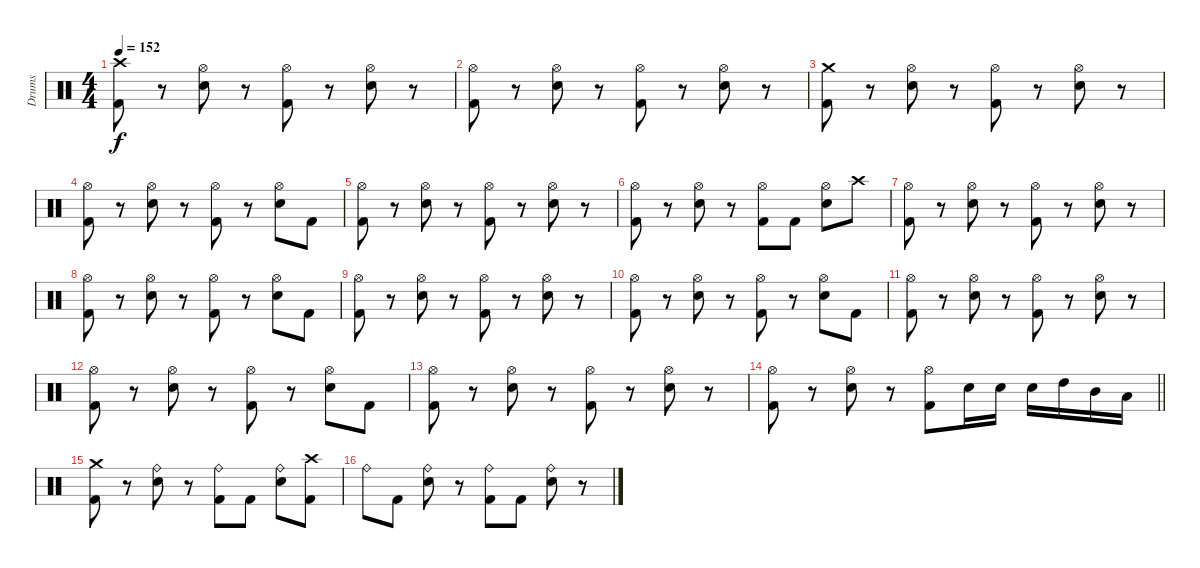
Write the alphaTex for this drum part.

\track ("Drums" "Drums") {instrument percussion}
\staff {score}
\articulation defaults
\ts (4 4)
\tempo 152
\clef neutral
\ks c
("Crash high (hit)" "Kick (hit) 2").8{dy f} r.8 ("Hi-Hat (open)" "Snare (hit) 2").8 r.8 ("Hi-Hat (open)" "Kick (hit) 2").8 r.8 ("Hi-Hat (open)" "Snare (hit) 2").8 r.8 |
("Hi-Hat (open)" "Kick (hit) 2").8 r.8 ("Hi-Hat (open)" "Snare (hit) 2").8 r.8 ("Hi-Hat (open)" "Kick (hit) 2").8 r.8 ("Hi-Hat (open)" "Snare (hit) 2").8 r.8 |
("Crash medium (hit)" "Kick (hit) 2").8 r.8 ("Hi-Hat (open)" "Snare (hit) 2").8 r.8 ("Hi-Hat (open)" "Kick (hit) 2").8 r.8 ("Hi-Hat (open)" "Snare (hit) 2").8 r.8 |
("Hi-Hat (open)" "Kick (hit) 2").8 r.8 ("Hi-Hat (open)" "Snare (hit) 2").8 r.8 ("Hi-Hat (open)" "Kick (hit) 2").8 r.8 ("Hi-Hat (open)" "Snare (hit) 2").8 "Kick (hit) 2".8 |
("Hi-Hat (open)" "Kick (hit) 2").8 r.8 ("Hi-Hat (open)" "Snare (hit) 2").8 r.8 ("Hi-Hat (open)" "Kick (hit) 2").8 r.8 ("Hi-Hat (open)" "Snare (hit) 2").8 r.8 |
("Hi-Hat (open)" "Kick (hit) 2").8 r.8 ("Hi-Hat (open)" "Snare (hit) 2").8 r.8 ("Hi-Hat (open)" "Kick (hit) 2").8 "Kick (hit) 2".8 ("Hi-Hat (open)" "Snare (hit) 2").8 "Crash high (hit)".8 |
("Hi-Hat (open)" "Kick (hit) 2").8 r.8 ("Hi-Hat (open)" "Snare (hit) 2").8 r.8 ("Hi-Hat (open)" "Kick (hit) 2").8 r.8 ("Hi-Hat (open)" "Snare (hit) 2").8 r.8 |
("Hi-Hat (open)" "Kick (hit) 2").8 r.8 ("Hi-Hat (open)" "Snare (hit) 2").8 r.8 ("Hi-Hat (open)" "Kick (hit) 2").8 r.8 ("Hi-Hat (open)" "Snare (hit) 2").8 "Kick (hit) 2".8 |
("Hi-Hat (open)" "Kick (hit) 2").8 r.8 ("Hi-Hat (open)" "Snare (hit) 2").8 r.8 ("Hi-Hat (open)" "Kick (hit) 2").8 r.8 ("Hi-Hat (open)" "Snare (hit) 2").8 r.8 |
("Hi-Hat (open)" "Kick (hit) 2").8 r.8 ("Hi-Hat (open)" "Snare (hit) 2").8 r.8 ("Hi-Hat (open)" "Kick (hit) 2").8 r.8 ("Hi-Hat (open)" "Snare (hit) 2").8 "Kick (hit) 2".8 |
("Hi-Hat (open)" "Kick (hit) 2").8 r.8 ("Hi-Hat (open)" "Snare (hit) 2").8 r.8 ("Hi-Hat (open)" "Kick (hit) 2").8 r.8 ("Hi-Hat (open)" "Snare (hit) 2").8 r.8 |
("Hi-Hat (open)" "Kick (hit) 2").8 r.8 ("Hi-Hat (open)" "Snare (hit) 2").8 r.8 ("Hi-Hat (open)" "Kick (hit) 2").8 r.8 ("Hi-Hat (open)" "Snare (hit) 2").8 "Kick (hit) 2".8 |
("Hi-Hat (open)" "Kick (hit) 2").8 r.8 ("Hi-Hat (open)" "Snare (hit) 2").8 r.8 ("Hi-Hat (open)" "Kick (hit) 2").8 r.8 ("Hi-Hat (open)" "Snare (hit) 2").8 r.8 |
\barLineRight lightlight
("Hi-Hat (open)" "Kick (hit) 2").8 r.8 ("Hi-Hat (open)" "Snare (hit) 2").8 r.8 ("Hi-Hat (open)" "Kick (hit) 2").8 "Snare (hit) 2".16 "Snare (hit) 2".16 "Snare (hit) 2".16 "High Tom (hit)".16 "Mid Tom (hit)".16 "Low Tom (hit)".16 |
("Crash medium (hit)" "Kick (hit) 2").8 r.8 ("Snare (hit) 2" "Ride (bell)").8 r.8 ("Kick (hit) 2" "Ride (bell)").8 "Kick (hit) 2".8 ("Snare (hit) 2" "Ride (bell)").8 ("Crash high (hit)" "Kick (hit) 2").8 |
"Ride (bell)".8 "Kick (hit) 2".8 ("Snare (hit) 2" "Ride (bell)").8 r.8 ("Ride (bell)" "Kick (hit) 2").8 "Kick (hit) 2".8 ("Snare (hit) 2" "Ride (bell)").8 r.8
